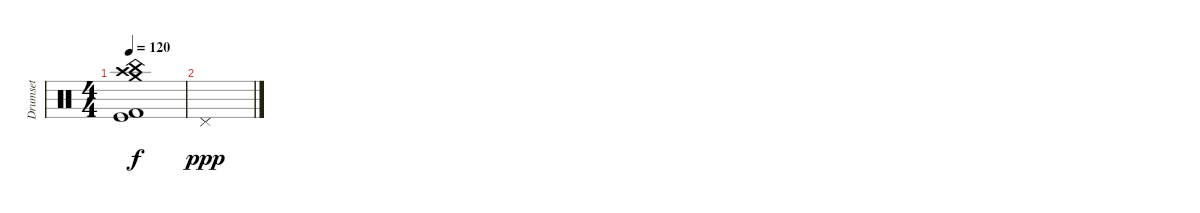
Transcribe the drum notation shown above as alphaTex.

\track ("Drumset" "Drumset") {instrument percussion}
\staff {score}
\articulation defaults
\ts (4 4)
\tempo 120
\clef neutral
\ks c
("China (hit)" "Kick (hit)" "Crash high (hit)" "Crash medium (hit)" "Kick (hit) 2").1{dy f} |
"Pedal Hi-Hat (hit)".1{dy ppp}
